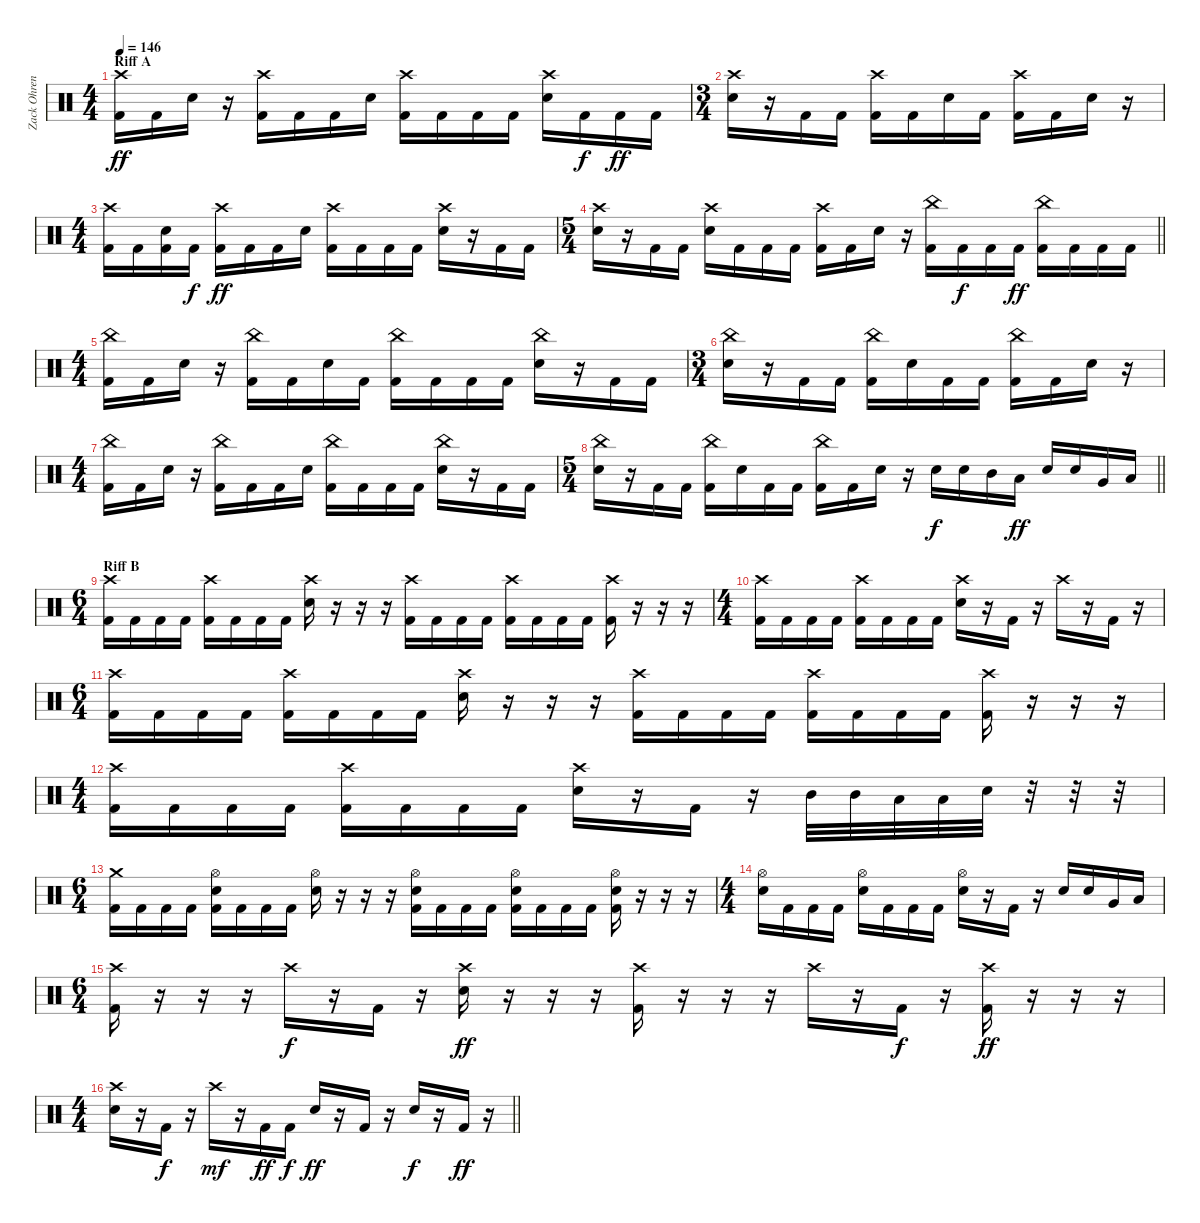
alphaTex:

\track ("Zack Ohren" "Zack Ohren") {instrument percussion}
\staff {score}
\articulation defaults
\ts (4 4)
\section ("" "Riff A")
\tempo 146
\clef neutral
\ks c
("Crash high (hit)" "Kick (hit) 2").16{dy ff} "Kick (hit) 2".16 "Electric Snare (hit)".16 r.16 ("Crash high (hit)" "Kick (hit) 2").16 "Kick (hit) 2".16 "Kick (hit) 2".16 "Electric Snare (hit)".16 ("Crash high (hit)" "Kick (hit) 2").16 "Kick (hit) 2".16 "Kick (hit) 2".16 "Kick (hit) 2".16 ("Crash high (hit)" "Electric Snare (hit)").16 "Kick (hit) 2".16{dy f} "Kick (hit) 2".16{dy ff} "Kick (hit) 2".16 |
\ts (3 4)
("Crash high (hit)" "Electric Snare (hit)").16 r.16 "Kick (hit) 2".16 "Kick (hit) 2".16 ("Crash high (hit)" "Kick (hit) 2").16 "Kick (hit) 2".16 "Electric Snare (hit)".16 "Kick (hit) 2".16 ("Crash high (hit)" "Kick (hit) 2").16 "Kick (hit) 2".16 "Electric Snare (hit)".16 r.16 |
\ts (4 4)
("Crash high (hit)" "Kick (hit) 2").16 "Kick (hit) 2".16 ("Kick (hit) 2" "Electric Snare (hit)").16 "Kick (hit) 2".16{dy f} ("Crash high (hit)" "Kick (hit) 2").16{dy ff} "Kick (hit) 2".16 "Kick (hit) 2".16 "Electric Snare (hit)".16 ("Crash high (hit)" "Kick (hit) 2").16 "Kick (hit) 2".16 "Kick (hit) 2".16 "Kick (hit) 2".16 ("Crash high (hit)" "Electric Snare (hit)").16 r.16 "Kick (hit) 2".16 "Kick (hit) 2".16 |
\ts (5 4)
\barLineRight lightlight
("Crash high (hit)" "Electric Snare (hit)").16 r.16 "Kick (hit) 2".16 "Kick (hit) 2".16 ("Crash high (hit)" "Electric Snare (hit)").16 "Kick (hit) 2".16 "Kick (hit) 2".16 "Kick (hit) 2".16 ("Crash high (hit)" "Kick (hit) 2").16 "Kick (hit) 2".16 "Electric Snare (hit)".16 r.16 ("China (hit)" "Kick (hit) 2").16 "Kick (hit) 2".16{dy f} "Kick (hit) 2".16 "Kick (hit) 2".16{dy ff} ("China (hit)" "Kick (hit) 2").16 "Kick (hit) 2".16 "Kick (hit) 2".16 "Kick (hit) 2".16 |
\ts (4 4)
("China (hit)" "Kick (hit) 2").16 "Kick (hit) 2".16 "Electric Snare (hit)".16 r.16 ("China (hit)" "Kick (hit) 2").16 "Kick (hit) 2".16 "Electric Snare (hit)".16 "Kick (hit) 2".16 ("China (hit)" "Kick (hit) 2").16 "Kick (hit) 2".16 "Kick (hit) 2".16 "Kick (hit) 2".16 ("China (hit)" "Electric Snare (hit)").16 r.16 "Kick (hit) 2".16 "Kick (hit) 2".16 |
\ts (3 4)
("China (hit)" "Electric Snare (hit)").16 r.16 "Kick (hit) 2".16 "Kick (hit) 2".16 ("China (hit)" "Kick (hit) 2").16 "Electric Snare (hit)".16 "Kick (hit) 2".16 "Kick (hit) 2".16 ("China (hit)" "Kick (hit) 2").16 "Kick (hit) 2".16 "Electric Snare (hit)".16 r.16 |
\ts (4 4)
("China (hit)" "Kick (hit) 2").16 "Kick (hit) 2".16 "Electric Snare (hit)".16 r.16 ("China (hit)" "Kick (hit) 2").16 "Kick (hit) 2".16 "Kick (hit) 2".16 "Electric Snare (hit)".16 ("China (hit)" "Kick (hit) 2").16 "Kick (hit) 2".16 "Kick (hit) 2".16 "Kick (hit) 2".16 ("China (hit)" "Electric Snare (hit)").16 r.16 "Kick (hit) 2".16 "Kick (hit) 2".16 |
\ts (5 4)
\barLineRight lightlight
("China (hit)" "Electric Snare (hit)").16 r.16 "Kick (hit) 2".16 "Kick (hit) 2".16 ("China (hit)" "Kick (hit) 2").16 "Electric Snare (hit)".16 "Kick (hit) 2".16 "Kick (hit) 2".16 ("China (hit)" "Kick (hit) 2").16 "Kick (hit) 2".16 "Electric Snare (hit)".16 r.16 "Electric Snare (hit)".16{dy f} "Electric Snare (hit)".16 "Mid Tom (hit)".16 "Low Tom (hit)".16{dy ff} "Electric Snare (hit)".16 "Electric Snare (hit)".16 "Very Low Tom (hit)".16 "Low Floor Tom (hit)".16 |
\ts (6 4)
\section ("" "Riff B")
("Crash high (hit)" "Kick (hit) 2").16 "Kick (hit) 2".16 "Kick (hit) 2".16 "Kick (hit) 2".16 ("Crash high (hit)" "Kick (hit) 2").16 "Kick (hit) 2".16 "Kick (hit) 2".16 "Kick (hit) 2".16 ("Crash high (hit)" "Electric Snare (hit)").16 r.16 r.16 r.16 ("Crash high (hit)" "Kick (hit) 2").16 "Kick (hit) 2".16 "Kick (hit) 2".16 "Kick (hit) 2".16 ("Crash high (hit)" "Kick (hit) 2").16 "Kick (hit) 2".16 "Kick (hit) 2".16 "Kick (hit) 2".16 ("Crash high (hit)" "Kick (hit) 2").16 r.16 r.16 r.16 |
\ts (4 4)
("Crash high (hit)" "Kick (hit) 2").16 "Kick (hit) 2".16 "Kick (hit) 2".16 "Kick (hit) 2".16 ("Crash high (hit)" "Kick (hit) 2").16 "Kick (hit) 2".16 "Kick (hit) 2".16 "Kick (hit) 2".16 ("Crash high (hit)" "Electric Snare (hit)").16 r.16 "Kick (hit) 2".16 r.16 "Crash high (hit)".16 r.16 "Kick (hit) 2".16 r.16 |
\ts (6 4)
("Crash high (hit)" "Kick (hit) 2").16 "Kick (hit) 2".16 "Kick (hit) 2".16 "Kick (hit) 2".16 ("Crash high (hit)" "Kick (hit) 2").16 "Kick (hit) 2".16 "Kick (hit) 2".16 "Kick (hit) 2".16 ("Crash high (hit)" "Electric Snare (hit)").16 r.16 r.16 r.16 ("Crash high (hit)" "Kick (hit) 2").16 "Kick (hit) 2".16 "Kick (hit) 2".16 "Kick (hit) 2".16 ("Crash high (hit)" "Kick (hit) 2").16 "Kick (hit) 2".16 "Kick (hit) 2".16 "Kick (hit) 2".16 ("Crash high (hit)" "Kick (hit) 2").16 r.16 r.16 r.16 |
\ts (4 4)
("Crash high (hit)" "Kick (hit) 2").16 "Kick (hit) 2".16 "Kick (hit) 2".16 "Kick (hit) 2".16 ("Crash high (hit)" "Kick (hit) 2").16 "Kick (hit) 2".16 "Kick (hit) 2".16 "Kick (hit) 2".16 ("Crash high (hit)" "Electric Snare (hit)").16 r.16 "Kick (hit) 2".16 r.16 "Mid Tom (hit)".32 "Mid Tom (hit)".32 "Low Tom (hit)".32 "Low Tom (hit)".32 "Electric Snare (hit)".32 r.32 r.32 r.32 |
\ts (6 4)
("Crash medium (hit)" "Kick (hit) 2").16 "Kick (hit) 2".16 "Kick (hit) 2".16 "Kick (hit) 2".16 ("Hi-Hat (open)" "Electric Snare (hit)" "Kick (hit) 2").16 "Kick (hit) 2".16 "Kick (hit) 2".16 "Kick (hit) 2".16 ("Hi-Hat (open)" "Electric Snare (hit)").16 r.16 r.16 r.16 ("Hi-Hat (open)" "Electric Snare (hit)" "Kick (hit) 2").16 "Kick (hit) 2".16 "Kick (hit) 2".16 "Kick (hit) 2".16 ("Hi-Hat (open)" "Electric Snare (hit)" "Kick (hit) 2").16 "Kick (hit) 2".16 "Kick (hit) 2".16 "Kick (hit) 2".16 ("Hi-Hat (open)" "Electric Snare (hit)" "Kick (hit) 2").16 r.16 r.16 r.16 |
\ts (4 4)
("Hi-Hat (open)" "Electric Snare (hit)").16 "Kick (hit) 2".16 "Kick (hit) 2".16 "Kick (hit) 2".16 ("Hi-Hat (open)" "Electric Snare (hit)").16 "Kick (hit) 2".16 "Kick (hit) 2".16 "Kick (hit) 2".16 ("Hi-Hat (open)" "Electric Snare (hit)").16 r.16 "Kick (hit) 2".16 r.16 "Electric Snare (hit)".16 "Electric Snare (hit)".16 "Very Low Tom (hit)".16 "Low Floor Tom (hit)".16 |
\ts (6 4)
("Crash high (hit)" "Kick (hit) 2").16 r.16 r.16 r.16 "Crash high (hit)".16{dy f} r.16 "Kick (hit) 2".16 r.16 ("Crash high (hit)" "Electric Snare (hit)").16{dy ff} r.16 r.16 r.16 ("Crash high (hit)" "Kick (hit) 2").16 r.16 r.16 r.16 "Crash high (hit)".16 r.16 "Kick (hit) 2".16{dy f} r.16 ("Crash high (hit)" "Kick (hit) 2").16{dy ff} r.16 r.16 r.16 |
\ts (4 4)
\barLineRight lightlight
("Crash high (hit)" "Electric Snare (hit)").16 r.16 "Kick (hit) 2".16{dy f} r.16 "Crash high (hit)".16{dy mf} r.16 "Kick (hit) 2".16{dy ff} "Kick (hit) 2".16{dy f} "Electric Snare (hit)".16{dy ff} r.16 "Kick (hit) 2".16 r.16 "Electric Snare (hit)".16{dy f} r.16 "Kick (hit) 2".16{dy ff} r.16
